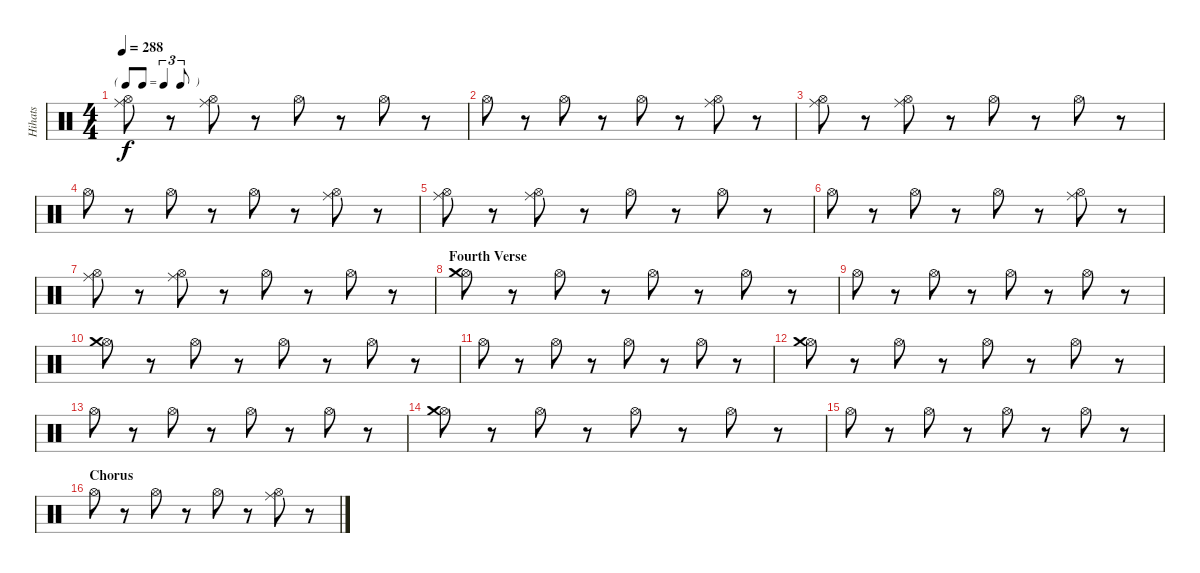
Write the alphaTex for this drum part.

\track ("Hihats" "Hihats") {instrument percussion}
\staff {score}
\articulation defaults
\ts (4 4)
\tf triplet8th
\tempo 288
\clef neutral
\ks c
("Hi-Hat (open)" "Ride (middle)").8{dy f} r.8 ("Hi-Hat (open)" "Ride (middle)").8 r.8 "Hi-Hat (open)".8 r.8 "Hi-Hat (open)".8 r.8 |
"Hi-Hat (open)".8 r.8 "Hi-Hat (open)".8 r.8 "Hi-Hat (open)".8 r.8 ("Hi-Hat (open)" "Ride (middle)").8 r.8 |
("Hi-Hat (open)" "Ride (middle)").8 r.8 ("Hi-Hat (open)" "Ride (middle)").8 r.8 "Hi-Hat (open)".8 r.8 "Hi-Hat (open)".8 r.8 |
"Hi-Hat (open)".8 r.8 "Hi-Hat (open)".8 r.8 "Hi-Hat (open)".8 r.8 ("Hi-Hat (open)" "Ride (middle)").8 r.8 |
("Hi-Hat (open)" "Ride (middle)").8 r.8 ("Hi-Hat (open)" "Ride (middle)").8 r.8 "Hi-Hat (open)".8 r.8 "Hi-Hat (open)".8 r.8 |
"Hi-Hat (open)".8 r.8 "Hi-Hat (open)".8 r.8 "Hi-Hat (open)".8 r.8 ("Hi-Hat (open)" "Ride (middle)").8 r.8 |
("Hi-Hat (open)" "Ride (middle)").8 r.8 ("Hi-Hat (open)" "Ride (middle)").8 r.8 "Hi-Hat (open)".8 r.8 "Hi-Hat (open)".8 r.8 |
\section ("" "Fourth Verse")
("Hi-Hat (open)" "Crash medium (hit)").8 r.8 "Hi-Hat (open)".8 r.8 "Hi-Hat (open)".8 r.8 "Hi-Hat (open)".8 r.8 |
"Hi-Hat (open)".8 r.8 "Hi-Hat (open)".8 r.8 "Hi-Hat (open)".8 r.8 "Hi-Hat (open)".8 r.8 |
("Hi-Hat (open)" "Crash medium (hit)").8 r.8 "Hi-Hat (open)".8 r.8 "Hi-Hat (open)".8 r.8 "Hi-Hat (open)".8 r.8 |
"Hi-Hat (open)".8 r.8 "Hi-Hat (open)".8 r.8 "Hi-Hat (open)".8 r.8 "Hi-Hat (open)".8 r.8 |
("Hi-Hat (open)" "Crash medium (hit)").8 r.8 "Hi-Hat (open)".8 r.8 "Hi-Hat (open)".8 r.8 "Hi-Hat (open)".8 r.8 |
"Hi-Hat (open)".8 r.8 "Hi-Hat (open)".8 r.8 "Hi-Hat (open)".8 r.8 "Hi-Hat (open)".8 r.8 |
("Hi-Hat (open)" "Crash medium (hit)").8 r.8 "Hi-Hat (open)".8 r.8 "Hi-Hat (open)".8 r.8 "Hi-Hat (open)".8 r.8 |
"Hi-Hat (open)".8 r.8 "Hi-Hat (open)".8 r.8 "Hi-Hat (open)".8 r.8 "Hi-Hat (open)".8 r.8 |
\section ("" "Chorus")
"Hi-Hat (open)".8 r.8 "Hi-Hat (open)".8 r.8 "Hi-Hat (open)".8 r.8 ("Hi-Hat (open)" "Ride (middle)").8 r.8
